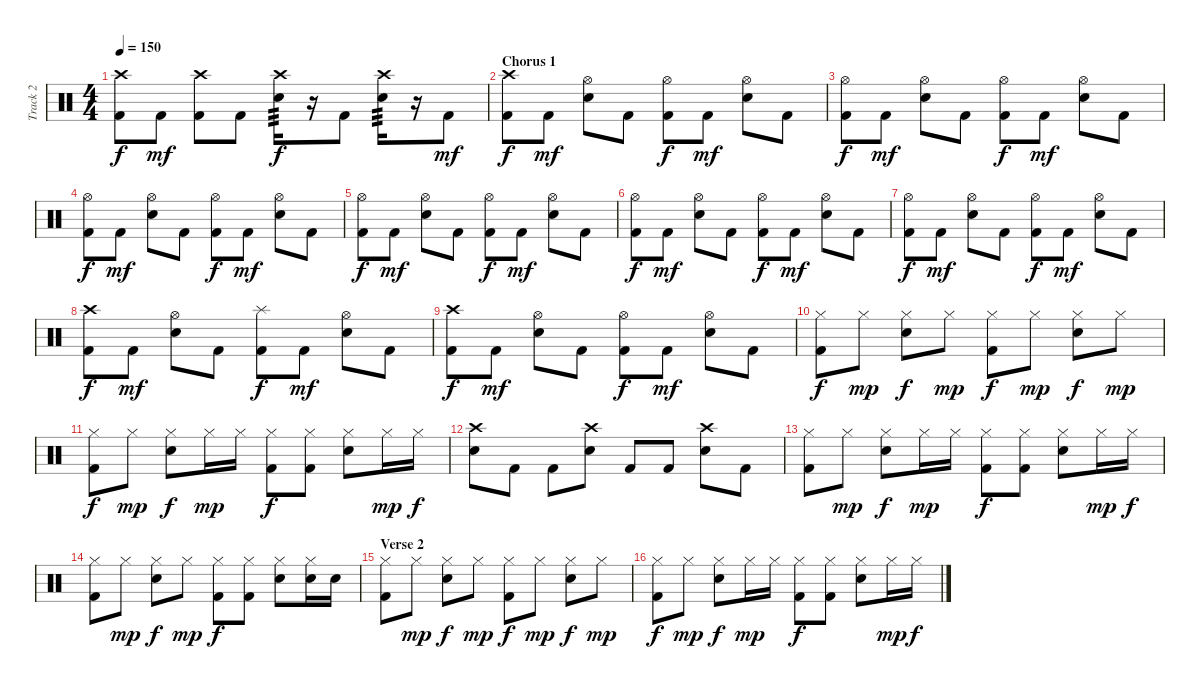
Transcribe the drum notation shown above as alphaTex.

\track ("Track 2" "Track 2") {instrument percussion}
\staff {score}
\articulation defaults
\ts (4 4)
\tempo 150
\clef neutral
\ks c
("Crash high (hit)" "Kick (hit) 2").8{dy f} "Kick (hit) 2".8{dy mf} ("Crash high (hit)" "Kick (hit) 2").8 "Kick (hit) 2".8 ("Crash high (hit)" "Electric Snare (hit)").16{tp 3 dy f} r.16 "Kick (hit) 2".8 ("Crash high (hit)" "Electric Snare (hit)").16{tp 3} r.16 "Kick (hit) 2".8{dy mf} |
\section ("" "Chorus 1")
("Crash high (hit)" "Kick (hit) 2").8{dy f} "Kick (hit) 2".8{dy mf} ("Hi-Hat (open)" "Electric Snare (hit)").8 "Kick (hit) 2".8 ("Hi-Hat (open)" "Kick (hit) 2").8{dy f} "Kick (hit) 2".8{dy mf} ("Hi-Hat (open)" "Electric Snare (hit)").8 "Kick (hit) 2".8 |
("Hi-Hat (open)" "Kick (hit) 2").8{dy f} "Kick (hit) 2".8{dy mf} ("Hi-Hat (open)" "Electric Snare (hit)").8 "Kick (hit) 2".8 ("Hi-Hat (open)" "Kick (hit) 2").8{dy f} "Kick (hit) 2".8{dy mf} ("Hi-Hat (open)" "Electric Snare (hit)").8 "Kick (hit) 2".8 |
("Hi-Hat (open)" "Kick (hit) 2").8{dy f} "Kick (hit) 2".8{dy mf} ("Hi-Hat (open)" "Electric Snare (hit)").8 "Kick (hit) 2".8 ("Hi-Hat (open)" "Kick (hit) 2").8{dy f} "Kick (hit) 2".8{dy mf} ("Hi-Hat (open)" "Electric Snare (hit)").8 "Kick (hit) 2".8 |
("Hi-Hat (open)" "Kick (hit) 2").8{dy f} "Kick (hit) 2".8{dy mf} ("Hi-Hat (open)" "Electric Snare (hit)").8 "Kick (hit) 2".8 ("Hi-Hat (open)" "Kick (hit) 2").8{dy f} "Kick (hit) 2".8{dy mf} ("Hi-Hat (open)" "Electric Snare (hit)").8 "Kick (hit) 2".8 |
("Hi-Hat (open)" "Kick (hit) 2").8{dy f} "Kick (hit) 2".8{dy mf} ("Hi-Hat (open)" "Electric Snare (hit)").8 "Kick (hit) 2".8 ("Hi-Hat (open)" "Kick (hit) 2").8{dy f} "Kick (hit) 2".8{dy mf} ("Hi-Hat (open)" "Electric Snare (hit)").8 "Kick (hit) 2".8 |
("Hi-Hat (open)" "Kick (hit) 2").8{dy f} "Kick (hit) 2".8{dy mf} ("Hi-Hat (open)" "Electric Snare (hit)").8 "Kick (hit) 2".8 ("Hi-Hat (open)" "Kick (hit) 2").8{dy f} "Kick (hit) 2".8{dy mf} ("Hi-Hat (open)" "Electric Snare (hit)").8 "Kick (hit) 2".8 |
("Crash high (hit)" "Kick (hit) 2").8{dy f} "Kick (hit) 2".8{dy mf} ("Hi-Hat (open)" "Electric Snare (hit)").8 "Kick (hit) 2".8 ("Splash (hit)" "Kick (hit) 2").8{dy f} "Kick (hit) 2".8{dy mf} ("Hi-Hat (open)" "Electric Snare (hit)").8 "Kick (hit) 2".8 |
("Crash high (hit)" "Kick (hit) 2").8{dy f} "Kick (hit) 2".8{dy mf} ("Hi-Hat (open)" "Electric Snare (hit)").8 "Kick (hit) 2".8 ("Hi-Hat (open)" "Kick (hit) 2").8{dy f} "Kick (hit) 2".8{dy mf} ("Hi-Hat (open)" "Electric Snare (hit)").8 "Kick (hit) 2".8 |
("Hi-Hat (closed)" "Kick (hit) 2").8{dy f} "Hi-Hat (closed)".8{dy mp} ("Hi-Hat (closed)" "Electric Snare (hit)").8{dy f} "Hi-Hat (closed)".8{dy mp} ("Hi-Hat (closed)" "Kick (hit) 2").8{dy f} "Hi-Hat (closed)".8{dy mp} ("Hi-Hat (closed)" "Electric Snare (hit)").8{dy f} "Hi-Hat (closed)".8{dy mp} |
("Hi-Hat (closed)" "Kick (hit) 2").8{dy f} "Hi-Hat (closed)".8{dy mp} ("Hi-Hat (closed)" "Electric Snare (hit)").8{dy f} "Hi-Hat (closed)".16{dy mp} "Hi-Hat (closed)".16 ("Hi-Hat (closed)" "Kick (hit) 2").8{dy f} ("Hi-Hat (closed)" "Kick (hit) 2").8 ("Hi-Hat (closed)" "Electric Snare (hit)").8 "Hi-Hat (closed)".16{dy mp} "Hi-Hat (closed)".16{dy f} |
("Crash high (hit)" "Electric Snare (hit)").8 "Kick (hit) 2".8 "Kick (hit) 2".8 ("Crash high (hit)" "Electric Snare (hit)").8 "Kick (hit) 2".8 "Kick (hit) 2".8 ("Crash high (hit)" "Electric Snare (hit)").8 "Kick (hit) 2".8 |
("Hi-Hat (closed)" "Kick (hit) 2").8 "Hi-Hat (closed)".8{dy mp} ("Hi-Hat (closed)" "Electric Snare (hit)").8{dy f} "Hi-Hat (closed)".16{dy mp} "Hi-Hat (closed)".16 ("Hi-Hat (closed)" "Kick (hit) 2").8{dy f} ("Hi-Hat (closed)" "Kick (hit) 2").8 ("Hi-Hat (closed)" "Electric Snare (hit)").8 "Hi-Hat (closed)".16{dy mp} "Hi-Hat (closed)".16{dy f} |
("Hi-Hat (closed)" "Kick (hit) 2").8 "Hi-Hat (closed)".8{dy mp} ("Hi-Hat (closed)" "Electric Snare (hit)").8{dy f} "Hi-Hat (closed)".8{dy mp} ("Hi-Hat (closed)" "Kick (hit) 2").8{dy f} ("Hi-Hat (closed)" "Kick (hit) 2").8 ("Hi-Hat (closed)" "Electric Snare (hit)").8 ("Hi-Hat (closed)" "Electric Snare (hit)").16 "Electric Snare (hit)".16 |
\section ("" "Verse 2")
("Hi-Hat (closed)" "Kick (hit) 2").8 "Hi-Hat (closed)".8{dy mp} ("Hi-Hat (closed)" "Electric Snare (hit)").8{dy f} "Hi-Hat (closed)".8{dy mp} ("Hi-Hat (closed)" "Kick (hit) 2").8{dy f} "Hi-Hat (closed)".8{dy mp} ("Hi-Hat (closed)" "Electric Snare (hit)").8{dy f} "Hi-Hat (closed)".8{dy mp} |
("Hi-Hat (closed)" "Kick (hit) 2").8{dy f} "Hi-Hat (closed)".8{dy mp} ("Hi-Hat (closed)" "Electric Snare (hit)").8{dy f} "Hi-Hat (closed)".16{dy mp} "Hi-Hat (closed)".16 ("Hi-Hat (closed)" "Kick (hit) 2").8{dy f} ("Hi-Hat (closed)" "Kick (hit) 2").8 ("Hi-Hat (closed)" "Electric Snare (hit)").8 "Hi-Hat (closed)".16{dy mp} "Hi-Hat (closed)".16{dy f}
